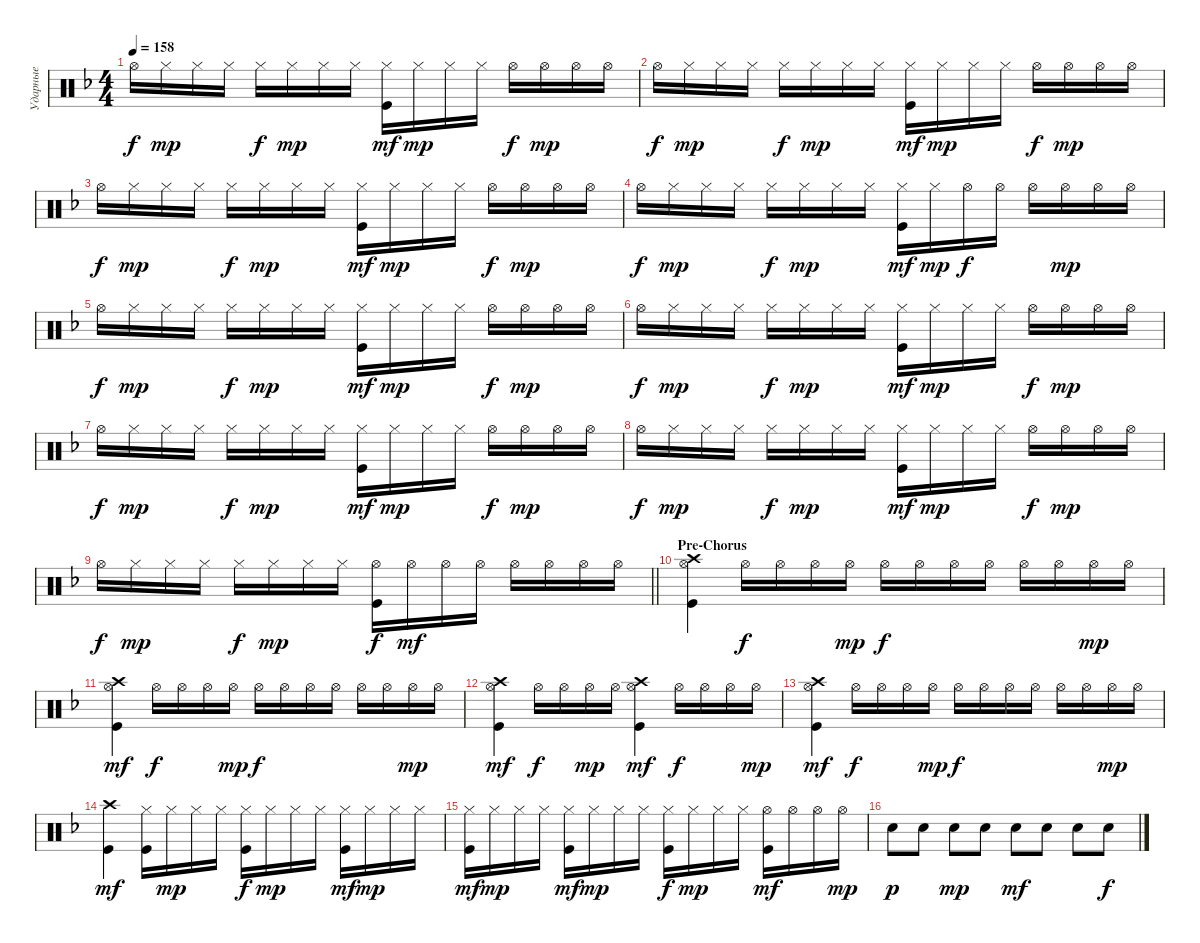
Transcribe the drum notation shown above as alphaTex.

\track ("Ударные" "Ударные") {instrument percussion}
\staff {score}
\articulation defaults
\ts (4 4)
\tempo 158
\clef neutral
\ks dminor "Hi-Hat (open)".16{dy f} "Hi-Hat (closed)".16{dy mp} "Hi-Hat (closed)".16 "Hi-Hat (closed)".16 "Hi-Hat (closed)".16{dy f} "Hi-Hat (closed)".16{dy mp} "Hi-Hat (closed)".16 "Hi-Hat (closed)".16
("Hi-Hat (closed)" "Kick (hit)").16{dy mf} "Hi-Hat (closed)".16{dy mp} "Hi-Hat (closed)".16 "Hi-Hat (closed)".16 "Hi-Hat (open)".16{dy f} "Hi-Hat (open)".16{dy mp} "Hi-Hat (open)".16 "Hi-Hat (open)".16 |
"Hi-Hat (open)".16{dy f} "Hi-Hat (closed)".16{dy mp} "Hi-Hat (closed)".16 "Hi-Hat (closed)".16 "Hi-Hat (closed)".16{dy f} "Hi-Hat (closed)".16{dy mp} "Hi-Hat (closed)".16 "Hi-Hat (closed)".16 ("Hi-Hat (closed)" "Kick (hit)").16{dy mf} "Hi-Hat (closed)".16{dy mp} "Hi-Hat (closed)".16 "Hi-Hat (closed)".16 "Hi-Hat (open)".16{dy f} "Hi-Hat (open)".16{dy mp} "Hi-Hat (open)".16 "Hi-Hat (open)".16 |
"Hi-Hat (open)".16{dy f} "Hi-Hat (closed)".16{dy mp} "Hi-Hat (closed)".16 "Hi-Hat (closed)".16 "Hi-Hat (closed)".16{dy f} "Hi-Hat (closed)".16{dy mp} "Hi-Hat (closed)".16 "Hi-Hat (closed)".16 ("Hi-Hat (closed)" "Kick (hit)").16{dy mf} "Hi-Hat (closed)".16{dy mp} "Hi-Hat (closed)".16 "Hi-Hat (closed)".16 "Hi-Hat (open)".16{dy f} "Hi-Hat (open)".16{dy mp} "Hi-Hat (open)".16 "Hi-Hat (open)".16 |
"Hi-Hat (open)".16{dy f} "Hi-Hat (closed)".16{dy mp} "Hi-Hat (closed)".16 "Hi-Hat (closed)".16 "Hi-Hat (closed)".16{dy f} "Hi-Hat (closed)".16{dy mp} "Hi-Hat (closed)".16 "Hi-Hat (closed)".16 ("Hi-Hat (closed)" "Kick (hit)").16{dy mf} "Hi-Hat (closed)".16{dy mp} "Hi-Hat (open)".16{dy f} "Hi-Hat (open)".16 "Hi-Hat (open)".16 "Hi-Hat (open)".16{dy mp} "Hi-Hat (open)".16 "Hi-Hat (open)".16 |
"Hi-Hat (open)".16{dy f} "Hi-Hat (closed)".16{dy mp} "Hi-Hat (closed)".16 "Hi-Hat (closed)".16 "Hi-Hat (closed)".16{dy f} "Hi-Hat (closed)".16{dy mp} "Hi-Hat (closed)".16 "Hi-Hat (closed)".16 ("Hi-Hat (closed)" "Kick (hit)").16{dy mf} "Hi-Hat (closed)".16{dy mp} "Hi-Hat (closed)".16 "Hi-Hat (closed)".16 "Hi-Hat (open)".16{dy f} "Hi-Hat (open)".16{dy mp} "Hi-Hat (open)".16 "Hi-Hat (open)".16 |
"Hi-Hat (open)".16{dy f} "Hi-Hat (closed)".16{dy mp} "Hi-Hat (closed)".16 "Hi-Hat (closed)".16 "Hi-Hat (closed)".16{dy f} "Hi-Hat (closed)".16{dy mp} "Hi-Hat (closed)".16 "Hi-Hat (closed)".16 ("Hi-Hat (closed)" "Kick (hit)").16{dy mf} "Hi-Hat (closed)".16{dy mp} "Hi-Hat (closed)".16 "Hi-Hat (closed)".16 "Hi-Hat (open)".16{dy f} "Hi-Hat (open)".16{dy mp} "Hi-Hat (open)".16 "Hi-Hat (open)".16 |
"Hi-Hat (open)".16{dy f} "Hi-Hat (closed)".16{dy mp} "Hi-Hat (closed)".16 "Hi-Hat (closed)".16 "Hi-Hat (closed)".16{dy f} "Hi-Hat (closed)".16{dy mp} "Hi-Hat (closed)".16 "Hi-Hat (closed)".16 ("Hi-Hat (closed)" "Kick (hit)").16{dy mf} "Hi-Hat (closed)".16{dy mp} "Hi-Hat (closed)".16 "Hi-Hat (closed)".16 "Hi-Hat (open)".16{dy f} "Hi-Hat (open)".16{dy mp} "Hi-Hat (open)".16 "Hi-Hat (open)".16 |
"Hi-Hat (open)".16{dy f} "Hi-Hat (closed)".16{dy mp} "Hi-Hat (closed)".16 "Hi-Hat (closed)".16 "Hi-Hat (closed)".16{dy f} "Hi-Hat (closed)".16{dy mp} "Hi-Hat (closed)".16 "Hi-Hat (closed)".16 ("Hi-Hat (closed)" "Kick (hit)").16{dy mf} "Hi-Hat (closed)".16{dy mp} "Hi-Hat (closed)".16 "Hi-Hat (closed)".16 "Hi-Hat (open)".16{dy f} "Hi-Hat (open)".16{dy mp} "Hi-Hat (open)".16 "Hi-Hat (open)".16 |
\barLineRight lightlight "Hi-Hat (open)".16{dy f} "Hi-Hat (closed)".16{dy mp} "Hi-Hat (closed)".16 "Hi-Hat (closed)".16 "Hi-Hat (closed)".16{dy f} "Hi-Hat (closed)".16{dy mp} "Hi-Hat (closed)".16 "Hi-Hat (closed)".16
("Hi-Hat (open)" "Kick (hit)").16{dy f} "Hi-Hat (open)".16{dy mf} "Hi-Hat (open)".16 "Hi-Hat (open)".16 "Hi-Hat (open)".16 "Hi-Hat (open)".16 "Hi-Hat (open)".16 "Hi-Hat (open)".16 |
\section ("" "Pre-Chorus")
("Kick (hit)" "Crash high (hit)" "Hi-Hat (open)").4 "Hi-Hat (open)".16{dy f} "Hi-Hat (open)".16 "Hi-Hat (open)".16 "Hi-Hat (open)".16{dy mp} "Hi-Hat (open)".16{dy f} "Hi-Hat (open)".16 "Hi-Hat (open)".16 "Hi-Hat (open)".16 "Hi-Hat (open)".16 "Hi-Hat (open)".16 "Hi-Hat (open)".16{dy mp} "Hi-Hat (open)".16 |
("Kick (hit)" "Crash high (hit)" "Hi-Hat (open)").4{dy mf} "Hi-Hat (open)".16{dy f} "Hi-Hat (open)".16 "Hi-Hat (open)".16 "Hi-Hat (open)".16{dy mp} "Hi-Hat (open)".16{dy f} "Hi-Hat (open)".16 "Hi-Hat (open)".16 "Hi-Hat (open)".16 "Hi-Hat (open)".16 "Hi-Hat (open)".16 "Hi-Hat (open)".16{dy mp} "Hi-Hat (open)".16 |
("Kick (hit)" "Crash high (hit)" "Hi-Hat (open)").4{dy mf} "Hi-Hat (open)".16{dy f} "Hi-Hat (open)".16 "Hi-Hat (open)".16{dy mp} "Hi-Hat (open)".16 ("Kick (hit)" "Crash high (hit)" "Hi-Hat (open)").4{dy mf} "Hi-Hat (open)".16{dy f} "Hi-Hat (open)".16 "Hi-Hat (open)".16 "Hi-Hat (open)".16{dy mp} |
("Kick (hit)" "Crash high (hit)" "Hi-Hat (open)").4{dy mf} "Hi-Hat (open)".16{dy f} "Hi-Hat (open)".16 "Hi-Hat (open)".16 "Hi-Hat (open)".16{dy mp} "Hi-Hat (open)".16{dy f} "Hi-Hat (open)".16 "Hi-Hat (open)".16 "Hi-Hat (open)".16 "Hi-Hat (open)".16 "Hi-Hat (open)".16 "Hi-Hat (open)".16{dy mp} "Hi-Hat (open)".16 |
("Kick (hit)" "Crash high (hit)").4{dy mf} ("Hi-Hat (closed)" "Kick (hit)").16 "Hi-Hat (closed)".16{dy mp} "Hi-Hat (closed)".16 "Hi-Hat (closed)".16 ("Hi-Hat (closed)" "Kick (hit)").16{dy f} "Hi-Hat (closed)".16{dy mp} "Hi-Hat (closed)".16 "Hi-Hat (closed)".16 ("Hi-Hat (closed)" "Kick (hit)").16{dy mf} "Hi-Hat (closed)".16{dy mp} "Hi-Hat (closed)".16 "Hi-Hat (closed)".16 |
("Hi-Hat (closed)" "Kick (hit)").16{dy mf} "Hi-Hat (closed)".16{dy mp} "Hi-Hat (closed)".16 "Hi-Hat (closed)".16 ("Hi-Hat (closed)" "Kick (hit)").16{dy mf} "Hi-Hat (closed)".16{dy mp} "Hi-Hat (closed)".16 "Hi-Hat (closed)".16 ("Hi-Hat (closed)" "Kick (hit)").16{dy f} "Hi-Hat (closed)".16{dy mp} "Hi-Hat (closed)".16 "Hi-Hat (closed)".16 ("Hi-Hat (open)" "Kick (hit)").16{dy mf} "Hi-Hat (open)".16 "Hi-Hat (open)".16 "Hi-Hat (open)".16{dy mp} |
"Snare (hit) 2".8{dy p} "Snare (hit) 2".8 "Snare (hit) 2".8{dy mp} "Snare (hit) 2".8 "Snare (hit) 2".8{dy mf} "Snare (hit) 2".8 "Snare (hit) 2".8 "Snare (hit) 2".8{dy f}
